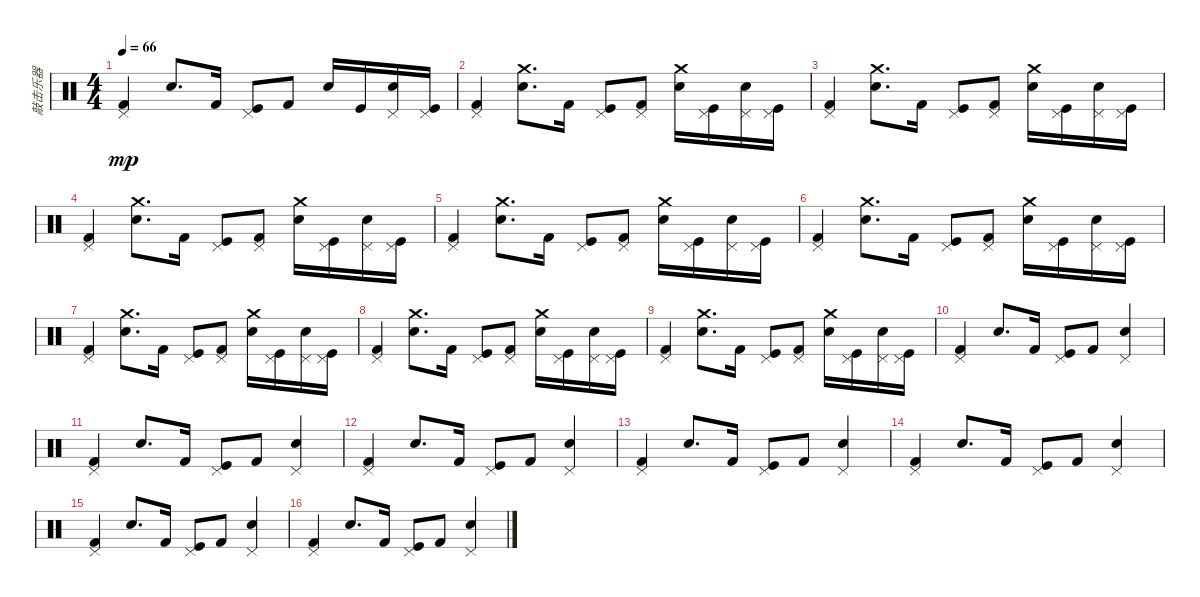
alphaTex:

\track ("敲击乐器" "敲击乐器") {instrument percussion}
\staff {score}
\articulation defaults
\ts (4 4)
\tempo 66
\clef neutral
\ks c
("Kick (hit) 2" "Pedal Hi-Hat (hit)").4{dy mp} "Snare (hit) 2".8{d} "Kick (hit) 2".16 ("Kick (hit)" "Pedal Hi-Hat (hit)").8 "Kick (hit) 2".8 "Snare (hit) 2".16 "Kick (hit)".16 ("Snare (hit) 2" "Pedal Hi-Hat (hit)").16 ("Kick (hit)" "Pedal Hi-Hat (hit)").16 |
("Kick (hit) 2" "Pedal Hi-Hat (hit)").4 ("Snare (hit) 2" "Crash medium (hit)").8{d} "Kick (hit) 2".16 ("Kick (hit)" "Pedal Hi-Hat (hit)").8 ("Kick (hit) 2" "Pedal Hi-Hat (hit)").8 ("Snare (hit) 2" "Crash medium (hit)").16 ("Kick (hit)" "Pedal Hi-Hat (hit)").16 ("Snare (hit) 2" "Pedal Hi-Hat (hit)").16 ("Kick (hit)" "Pedal Hi-Hat (hit)").16 |
("Kick (hit) 2" "Pedal Hi-Hat (hit)").4 ("Snare (hit) 2" "Crash medium (hit)").8{d} "Kick (hit) 2".16 ("Kick (hit)" "Pedal Hi-Hat (hit)").8 ("Kick (hit) 2" "Pedal Hi-Hat (hit)").8 ("Snare (hit) 2" "Crash medium (hit)").16 ("Kick (hit)" "Pedal Hi-Hat (hit)").16 ("Snare (hit) 2" "Pedal Hi-Hat (hit)").16 ("Kick (hit)" "Pedal Hi-Hat (hit)").16 |
("Kick (hit) 2" "Pedal Hi-Hat (hit)").4 ("Snare (hit) 2" "Crash medium (hit)").8{d} "Kick (hit) 2".16 ("Kick (hit)" "Pedal Hi-Hat (hit)").8 ("Kick (hit) 2" "Pedal Hi-Hat (hit)").8 ("Snare (hit) 2" "Crash medium (hit)").16 ("Kick (hit)" "Pedal Hi-Hat (hit)").16 ("Snare (hit) 2" "Pedal Hi-Hat (hit)").16 ("Kick (hit)" "Pedal Hi-Hat (hit)").16 |
("Kick (hit) 2" "Pedal Hi-Hat (hit)").4 ("Snare (hit) 2" "Crash medium (hit)").8{d} "Kick (hit) 2".16 ("Kick (hit)" "Pedal Hi-Hat (hit)").8 ("Kick (hit) 2" "Pedal Hi-Hat (hit)").8 ("Snare (hit) 2" "Crash medium (hit)").16 ("Kick (hit)" "Pedal Hi-Hat (hit)").16 ("Snare (hit) 2" "Pedal Hi-Hat (hit)").16 ("Kick (hit)" "Pedal Hi-Hat (hit)").16 |
("Kick (hit) 2" "Pedal Hi-Hat (hit)").4 ("Snare (hit) 2" "Crash medium (hit)").8{d} "Kick (hit) 2".16 ("Kick (hit)" "Pedal Hi-Hat (hit)").8 ("Kick (hit) 2" "Pedal Hi-Hat (hit)").8 ("Snare (hit) 2" "Crash medium (hit)").16 ("Kick (hit)" "Pedal Hi-Hat (hit)").16 ("Snare (hit) 2" "Pedal Hi-Hat (hit)").16 ("Kick (hit)" "Pedal Hi-Hat (hit)").16 |
("Kick (hit) 2" "Pedal Hi-Hat (hit)").4 ("Snare (hit) 2" "Crash medium (hit)").8{d} "Kick (hit) 2".16 ("Kick (hit)" "Pedal Hi-Hat (hit)").8 ("Kick (hit) 2" "Pedal Hi-Hat (hit)").8 ("Snare (hit) 2" "Crash medium (hit)").16 ("Kick (hit)" "Pedal Hi-Hat (hit)").16 ("Snare (hit) 2" "Pedal Hi-Hat (hit)").16 ("Kick (hit)" "Pedal Hi-Hat (hit)").16 |
("Kick (hit) 2" "Pedal Hi-Hat (hit)").4 ("Snare (hit) 2" "Crash medium (hit)").8{d} "Kick (hit) 2".16 ("Kick (hit)" "Pedal Hi-Hat (hit)").8 ("Kick (hit) 2" "Pedal Hi-Hat (hit)").8 ("Snare (hit) 2" "Crash medium (hit)").16 ("Kick (hit)" "Pedal Hi-Hat (hit)").16 ("Snare (hit) 2" "Pedal Hi-Hat (hit)").16 ("Kick (hit)" "Pedal Hi-Hat (hit)").16 |
("Kick (hit) 2" "Pedal Hi-Hat (hit)").4 ("Snare (hit) 2" "Crash medium (hit)").8{d} "Kick (hit) 2".16 ("Kick (hit)" "Pedal Hi-Hat (hit)").8 ("Kick (hit) 2" "Pedal Hi-Hat (hit)").8 ("Snare (hit) 2" "Crash medium (hit)").16 ("Kick (hit)" "Pedal Hi-Hat (hit)").16 ("Snare (hit) 2" "Pedal Hi-Hat (hit)").16 ("Kick (hit)" "Pedal Hi-Hat (hit)").16 |
("Kick (hit) 2" "Pedal Hi-Hat (hit)").4 "Snare (hit) 2".8{d} "Kick (hit) 2".16 ("Kick (hit)" "Pedal Hi-Hat (hit)").8 "Kick (hit) 2".8 ("Snare (hit) 2" "Pedal Hi-Hat (hit)").4 |
("Kick (hit) 2" "Pedal Hi-Hat (hit)").4 "Snare (hit) 2".8{d} "Kick (hit) 2".16 ("Kick (hit)" "Pedal Hi-Hat (hit)").8 "Kick (hit) 2".8 ("Snare (hit) 2" "Pedal Hi-Hat (hit)").4 |
("Kick (hit) 2" "Pedal Hi-Hat (hit)").4 "Snare (hit) 2".8{d} "Kick (hit) 2".16 ("Kick (hit)" "Pedal Hi-Hat (hit)").8 "Kick (hit) 2".8 ("Snare (hit) 2" "Pedal Hi-Hat (hit)").4 |
("Kick (hit) 2" "Pedal Hi-Hat (hit)").4 "Snare (hit) 2".8{d} "Kick (hit) 2".16 ("Kick (hit)" "Pedal Hi-Hat (hit)").8 "Kick (hit) 2".8 ("Snare (hit) 2" "Pedal Hi-Hat (hit)").4 |
("Kick (hit) 2" "Pedal Hi-Hat (hit)").4 "Snare (hit) 2".8{d} "Kick (hit) 2".16 ("Kick (hit)" "Pedal Hi-Hat (hit)").8 "Kick (hit) 2".8 ("Snare (hit) 2" "Pedal Hi-Hat (hit)").4 |
("Kick (hit) 2" "Pedal Hi-Hat (hit)").4 "Snare (hit) 2".8{d} "Kick (hit) 2".16 ("Kick (hit)" "Pedal Hi-Hat (hit)").8 "Kick (hit) 2".8 ("Snare (hit) 2" "Pedal Hi-Hat (hit)").4 |
("Kick (hit) 2" "Pedal Hi-Hat (hit)").4 "Snare (hit) 2".8{d} "Kick (hit) 2".16 ("Kick (hit)" "Pedal Hi-Hat (hit)").8 "Kick (hit) 2".8 ("Snare (hit) 2" "Pedal Hi-Hat (hit)").4
